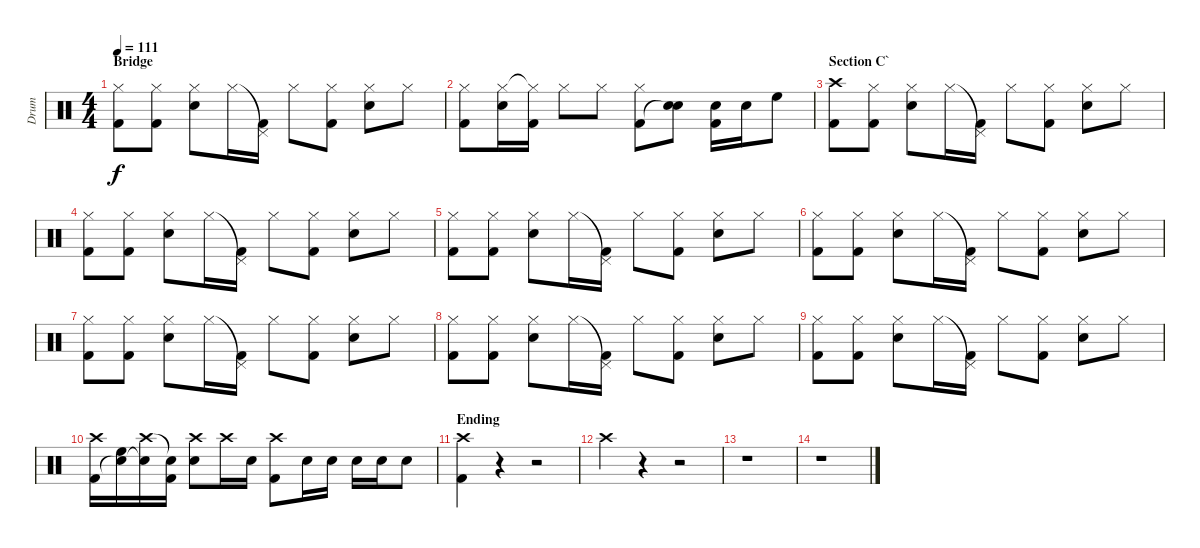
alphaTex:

\track ("Drum" "Drum") {instrument percussion}
\staff {score}
\articulation defaults
\ts (4 4)
\section ("" "Bridge")
\tempo 111
\clef neutral
\ks c
("Hi-Hat (closed)" "Kick (hit) 2").8{dy f} ("Hi-Hat (closed)" "Kick (hit) 2").8 ("Hi-Hat (closed)" "Snare (hit) 2").8 "Hi-Hat (closed)".16 ("Pedal Hi-Hat (hit)"{t} "Kick (hit) 2").16 "Hi-Hat (closed)".8 ("Hi-Hat (closed)" "Kick (hit) 2").8 ("Hi-Hat (closed)" "Snare (hit) 2").8 "Hi-Hat (closed)".8 |
("Hi-Hat (closed)" "Kick (hit) 2").8 ("Hi-Hat (closed)" "Snare (hit) 2").16 ("Hi-Hat (closed)"{t} "Kick (hit) 2").16 "Hi-Hat (closed)".8 "Hi-Hat (closed)".8 ("Hi-Hat (closed)" "Kick (hit) 2").8 ("Snare (hit) 2" "Snare (hit)"{t}).8 ("Snare (hit) 2" "Kick (hit) 2").16 "Snare (hit) 2".16 "High Floor Tom (hit)".8 |
\section ("" "Section C`")
("Crash high (hit)" "Kick (hit) 2").8 ("Hi-Hat (closed)" "Kick (hit) 2").8 ("Hi-Hat (closed)" "Snare (hit) 2").8 "Hi-Hat (closed)".16 ("Pedal Hi-Hat (hit)"{t} "Kick (hit) 2").16 "Hi-Hat (closed)".8 ("Hi-Hat (closed)" "Kick (hit) 2").8 ("Hi-Hat (closed)" "Snare (hit) 2").8 "Hi-Hat (closed)".8 |
("Hi-Hat (closed)" "Kick (hit) 2").8 ("Hi-Hat (closed)" "Kick (hit) 2").8 ("Hi-Hat (closed)" "Snare (hit) 2").8 "Hi-Hat (closed)".16 ("Pedal Hi-Hat (hit)"{t} "Kick (hit) 2").16 "Hi-Hat (closed)".8 ("Hi-Hat (closed)" "Kick (hit) 2").8 ("Hi-Hat (closed)" "Snare (hit) 2").8 "Hi-Hat (closed)".8 |
("Hi-Hat (closed)" "Kick (hit) 2").8 ("Hi-Hat (closed)" "Kick (hit) 2").8 ("Hi-Hat (closed)" "Snare (hit) 2").8 "Hi-Hat (closed)".16 ("Pedal Hi-Hat (hit)"{t} "Kick (hit) 2").16 "Hi-Hat (closed)".8 ("Hi-Hat (closed)" "Kick (hit) 2").8 ("Hi-Hat (closed)" "Snare (hit) 2").8 "Hi-Hat (closed)".8 |
("Hi-Hat (closed)" "Kick (hit) 2").8 ("Hi-Hat (closed)" "Kick (hit) 2").8 ("Hi-Hat (closed)" "Snare (hit) 2").8 "Hi-Hat (closed)".16 ("Pedal Hi-Hat (hit)"{t} "Kick (hit) 2").16 "Hi-Hat (closed)".8 ("Hi-Hat (closed)" "Kick (hit) 2").8 ("Hi-Hat (closed)" "Snare (hit) 2").8 "Hi-Hat (closed)".8 |
("Hi-Hat (closed)" "Kick (hit) 2").8 ("Hi-Hat (closed)" "Kick (hit) 2").8 ("Hi-Hat (closed)" "Snare (hit) 2").8 "Hi-Hat (closed)".16 ("Pedal Hi-Hat (hit)"{t} "Kick (hit) 2").16 "Hi-Hat (closed)".8 ("Hi-Hat (closed)" "Kick (hit) 2").8 ("Hi-Hat (closed)" "Snare (hit) 2").8 "Hi-Hat (closed)".8 |
("Hi-Hat (closed)" "Kick (hit) 2").8 ("Hi-Hat (closed)" "Kick (hit) 2").8 ("Hi-Hat (closed)" "Snare (hit) 2").8 "Hi-Hat (closed)".16 ("Pedal Hi-Hat (hit)"{t} "Kick (hit) 2").16 "Hi-Hat (closed)".8 ("Hi-Hat (closed)" "Kick (hit) 2").8 ("Hi-Hat (closed)" "Snare (hit) 2").8 "Hi-Hat (closed)".8 |
("Hi-Hat (closed)" "Kick (hit) 2").8 ("Hi-Hat (closed)" "Kick (hit) 2").8 ("Hi-Hat (closed)" "Snare (hit) 2").8 "Hi-Hat (closed)".16 ("Pedal Hi-Hat (hit)"{t} "Kick (hit) 2").16 "Hi-Hat (closed)".8 ("Hi-Hat (closed)" "Kick (hit) 2").8 ("Hi-Hat (closed)" "Snare (hit) 2").8 "Hi-Hat (closed)".8 |
("Crash high (hit)" "Kick (hit) 2").16 ("High Floor Tom (hit)" "Snare (hit)"{t}).16 ("Crash high (hit)" "Snare (hit)"{t}).16 ("Snare (hit)"{t} "Kick (hit) 2").16 ("Crash high (hit)" "Snare (hit) 2").8 "Crash high (hit)".16 "Snare (hit) 2".16 ("Crash high (hit)" "Kick (hit) 2").8 "Snare (hit) 2".16 "Snare (hit) 2".16 "Snare (hit) 2".16 "Snare (hit) 2".16 "Snare (hit) 2".8 |
\section ("" "Ending")
("Crash high (hit)" "Kick (hit) 2").4 r.4 r.2 |
"Crash high (hit)".4 r.4 r.2 |
r.1 |
r.1
